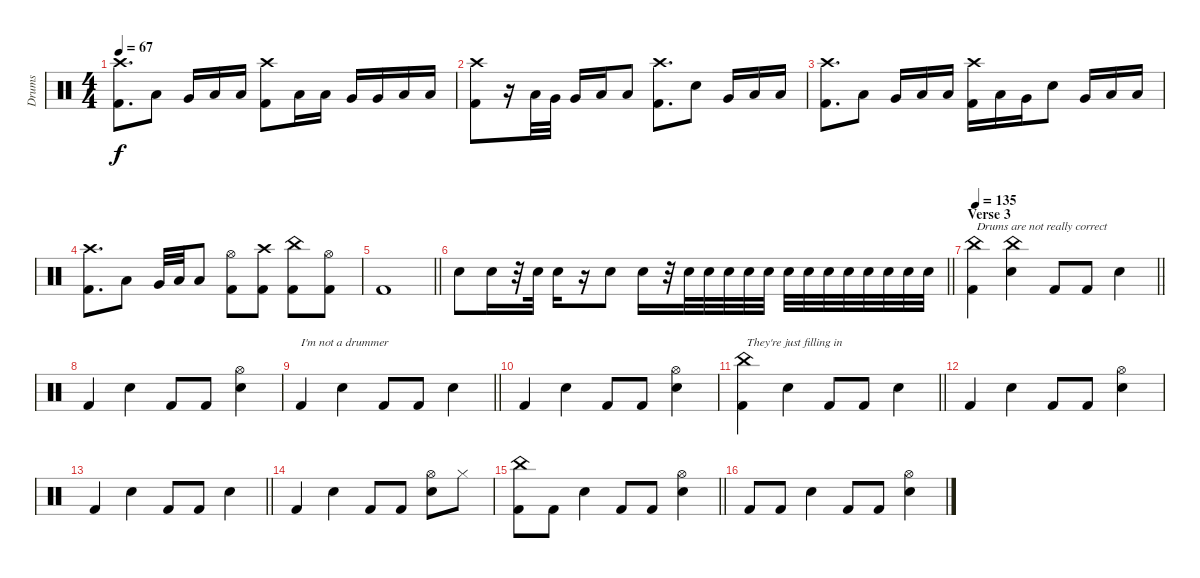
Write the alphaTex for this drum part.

\track ("Drums" "Drums") {instrument percussion}
\staff {score}
\articulation defaults
\ts (4 4)
\tempo 67
\clef neutral
\ks c
("Crash high (hit)" "Kick (hit) 2").8{d dy f} "Low Tom (hit)".8 "Very Low Tom (hit)".16 "Low Floor Tom (hit)".16 "Low Floor Tom (hit)".16 ("Crash high (hit)" "Kick (hit) 2").8 "Low Tom (hit)".16 "Low Tom (hit)".16 "Very Low Tom (hit)".16 "Very Low Tom (hit)".16 "Low Floor Tom (hit)".16 "Low Floor Tom (hit)".16 |
("Crash high (hit)" "Kick (hit) 2").8 r.16 "Low Tom (hit)".32 "Very Low Tom (hit)".32 "Very Low Tom (hit)".16 "Low Floor Tom (hit)".16 "Low Floor Tom (hit)".8 ("Crash high (hit)" "Kick (hit) 2").8{d} "Electric Snare (hit)".8 "Very Low Tom (hit)".16 "Low Floor Tom (hit)".16 "Low Floor Tom (hit)".16 |
("Crash high (hit)" "Kick (hit) 2").8{d} "Low Tom (hit)".8 "Very Low Tom (hit)".16 "Low Floor Tom (hit)".16 "Low Floor Tom (hit)".16 ("Crash high (hit)" "Kick (hit) 2").16 "Low Tom (hit)".16 "Very Low Tom (hit)".16 "Electric Snare (hit)".8 "Very Low Tom (hit)".16 "Low Floor Tom (hit)".16 "Low Floor Tom (hit)".16 |
("Crash high (hit)" "Kick (hit) 2").8{d} "Low Tom (hit)".8 "Very Low Tom (hit)".32 "Low Floor Tom (hit)".32 "Low Floor Tom (hit)".8 ("Hi-Hat (open)" "Kick (hit) 2").8 ("Crash high (hit)" "Kick (hit) 2").8 ("China (hit)" "Kick (hit) 2").8 ("Hi-Hat (open)" "Kick (hit) 2").8 |
\barLineRight lightlight "Kick (hit) 2".1
|
\barLineRight lightlight "Electric Snare (hit)".8 "Electric Snare (hit)".16
r.32 "Electric Snare (hit)".32 "Electric Snare (hit)".16 r.16 "Electric Snare (hit)".8 "Electric Snare (hit)".16 r.32 "Electric Snare (hit)".32 "Electric Snare (hit)".32 "Electric Snare (hit)".32 "Electric Snare (hit)".32 "Electric Snare (hit)".32 "Electric Snare (hit)".32 "Electric Snare (hit)".32 "Electric Snare (hit)".32 "Electric Snare (hit)".32 "Electric Snare (hit)".32 "Electric Snare (hit)".32 "Electric Snare (hit)".32 "Electric Snare (hit)".32 |
\section ("" "Verse 3")
\tempo 135
\barLineRight lightlight
("China (hit)" "Kick (hit) 2").4{txt "Drums are not really correct"} ("China (hit)" "Electric Snare (hit)").4 "Kick (hit) 2".8 "Kick (hit) 2".8 "Electric Snare (hit)".4 |
"Kick (hit) 2".4 "Electric Snare (hit)".4 "Kick (hit) 2".8 "Kick (hit) 2".8 ("Hi-Hat (open)" "Electric Snare (hit)").4 |
\barLineRight lightlight "Kick (hit) 2".4{txt "I'm not a drummer"} "Electric Snare (hit)".4 "Kick (hit) 2".8 "Kick (hit) 2".8 "Electric Snare (hit)".4
|
"Kick (hit) 2".4 "Electric Snare (hit)".4 "Kick (hit) 2".8 "Kick (hit) 2".8 ("Hi-Hat (open)" "Electric Snare (hit)").4 |
\barLineRight lightlight
("China (hit)" "Kick (hit) 2").4{txt "They're just filling in"} "Electric Snare (hit)".4 "Kick (hit) 2".8 "Kick (hit) 2".8 "Electric Snare (hit)".4 |
"Kick (hit) 2".4 "Electric Snare (hit)".4 "Kick (hit) 2".8 "Kick (hit) 2".8 ("Hi-Hat (open)" "Electric Snare (hit)").4 |
\barLineRight lightlight "Kick (hit) 2".4 "Electric Snare (hit)".4 "Kick (hit) 2".8 "Kick (hit) 2".8 "Electric Snare (hit)".4
|
"Kick (hit) 2".4 "Electric Snare (hit)".4 "Kick (hit) 2".8 "Kick (hit) 2".8 ("Electric Snare (hit)" "Hi-Hat (open)").8 "Hi-Hat (closed)".8 |
\barLineRight lightlight
("China (hit)" "Kick (hit) 2").8 "Kick (hit) 2".8 "Electric Snare (hit)".4 "Kick (hit) 2".8 "Kick (hit) 2".8 ("Hi-Hat (open)" "Electric Snare (hit)").4 |
"Kick (hit) 2".8 "Kick (hit) 2".8 "Electric Snare (hit)".4 "Kick (hit) 2".8 "Kick (hit) 2".8 ("Hi-Hat (open)" "Electric Snare (hit)").4
